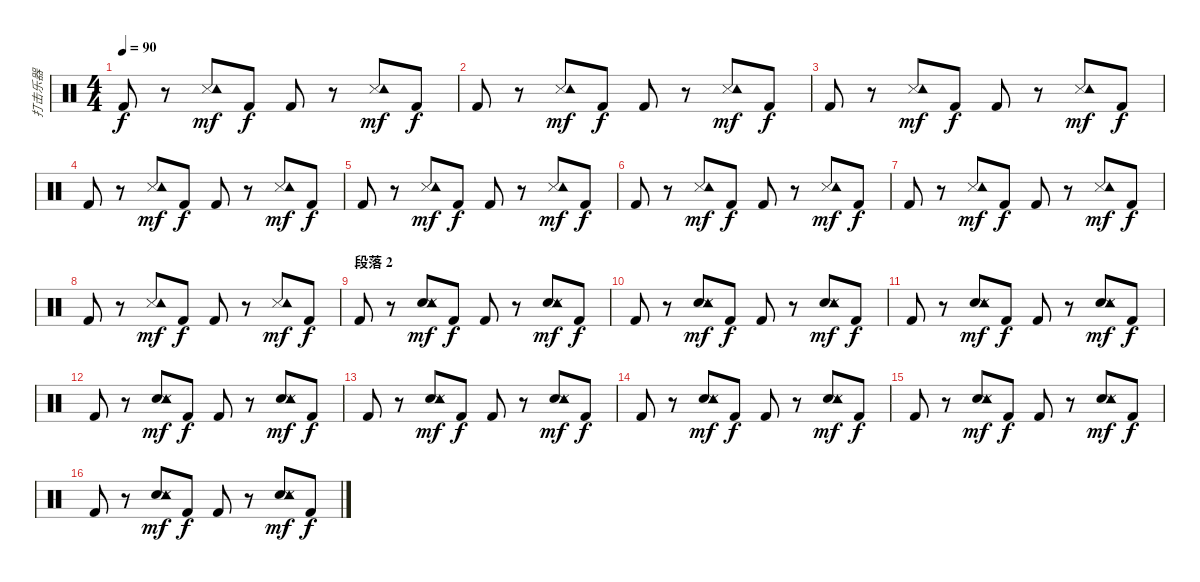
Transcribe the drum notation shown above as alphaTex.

\track ("打击乐器" "打击乐器") {instrument percussion}
\staff {score}
\articulation defaults
\ts (4 4)
\tempo 90
\clef neutral
\ks c "Kick (hit) 2".8{dy f}
r.8 ("Snare (side stick) 3" "Tambourine (hit)").8{dy mf} "Kick (hit) 2".8{dy f} "Kick (hit) 2".8 r.8 ("Snare (side stick) 3" "Tambourine (hit)").8{dy mf} "Kick (hit) 2".8{dy f} |
"Kick (hit) 2".8 r.8 ("Snare (side stick) 3" "Tambourine (hit)").8{dy mf} "Kick (hit) 2".8{dy f} "Kick (hit) 2".8 r.8 ("Snare (side stick) 3" "Tambourine (hit)").8{dy mf} "Kick (hit) 2".8{dy f} |
"Kick (hit) 2".8 r.8 ("Snare (side stick) 3" "Tambourine (hit)").8{dy mf} "Kick (hit) 2".8{dy f} "Kick (hit) 2".8 r.8 ("Snare (side stick) 3" "Tambourine (hit)").8{dy mf} "Kick (hit) 2".8{dy f} |
"Kick (hit) 2".8 r.8 ("Snare (side stick) 3" "Tambourine (hit)").8{dy mf} "Kick (hit) 2".8{dy f} "Kick (hit) 2".8 r.8 ("Snare (side stick) 3" "Tambourine (hit)").8{dy mf} "Kick (hit) 2".8{dy f} |
"Kick (hit) 2".8 r.8 ("Snare (side stick) 3" "Tambourine (hit)").8{dy mf} "Kick (hit) 2".8{dy f} "Kick (hit) 2".8 r.8 ("Snare (side stick) 3" "Tambourine (hit)").8{dy mf} "Kick (hit) 2".8{dy f} |
"Kick (hit) 2".8 r.8 ("Snare (side stick) 3" "Tambourine (hit)").8{dy mf} "Kick (hit) 2".8{dy f} "Kick (hit) 2".8 r.8 ("Snare (side stick) 3" "Tambourine (hit)").8{dy mf} "Kick (hit) 2".8{dy f} |
"Kick (hit) 2".8 r.8 ("Snare (side stick) 3" "Tambourine (hit)").8{dy mf} "Kick (hit) 2".8{dy f} "Kick (hit) 2".8 r.8 ("Snare (side stick) 3" "Tambourine (hit)").8{dy mf} "Kick (hit) 2".8{dy f} |
"Kick (hit) 2".8 r.8 ("Snare (side stick) 3" "Tambourine (hit)").8{dy mf} "Kick (hit) 2".8{dy f} "Kick (hit) 2".8 r.8 ("Snare (side stick) 3" "Tambourine (hit)").8{dy mf} "Kick (hit) 2".8{dy f} |
\section ("" "段落 2")
"Kick (hit) 2".8 r.8 ("Snare (hit) 2" "Snare (side stick) 3" "Tambourine (hit)").8{dy mf} "Kick (hit) 2".8{dy f} "Kick (hit) 2".8 r.8 ("Snare (hit) 2" "Snare (side stick) 3" "Tambourine (hit)").8{dy mf} "Kick (hit) 2".8{dy f} |
"Kick (hit) 2".8 r.8 ("Snare (hit) 2" "Snare (side stick) 3" "Tambourine (hit)").8{dy mf} "Kick (hit) 2".8{dy f} "Kick (hit) 2".8 r.8 ("Snare (hit) 2" "Snare (side stick) 3" "Tambourine (hit)").8{dy mf} "Kick (hit) 2".8{dy f} |
"Kick (hit) 2".8 r.8 ("Snare (hit) 2" "Snare (side stick) 3" "Tambourine (hit)").8{dy mf} "Kick (hit) 2".8{dy f} "Kick (hit) 2".8 r.8 ("Snare (hit) 2" "Snare (side stick) 3" "Tambourine (hit)").8{dy mf} "Kick (hit) 2".8{dy f} |
"Kick (hit) 2".8 r.8 ("Snare (hit) 2" "Snare (side stick) 3" "Tambourine (hit)").8{dy mf} "Kick (hit) 2".8{dy f} "Kick (hit) 2".8 r.8 ("Snare (hit) 2" "Snare (side stick) 3" "Tambourine (hit)").8{dy mf} "Kick (hit) 2".8{dy f} |
"Kick (hit) 2".8 r.8 ("Snare (hit) 2" "Snare (side stick) 3" "Tambourine (hit)").8{dy mf} "Kick (hit) 2".8{dy f} "Kick (hit) 2".8 r.8 ("Snare (hit) 2" "Snare (side stick) 3" "Tambourine (hit)").8{dy mf} "Kick (hit) 2".8{dy f} |
"Kick (hit) 2".8 r.8 ("Snare (hit) 2" "Snare (side stick) 3" "Tambourine (hit)").8{dy mf} "Kick (hit) 2".8{dy f} "Kick (hit) 2".8 r.8 ("Snare (hit) 2" "Snare (side stick) 3" "Tambourine (hit)").8{dy mf} "Kick (hit) 2".8{dy f} |
"Kick (hit) 2".8 r.8 ("Snare (hit) 2" "Snare (side stick) 3" "Tambourine (hit)").8{dy mf} "Kick (hit) 2".8{dy f} "Kick (hit) 2".8 r.8 ("Snare (hit) 2" "Snare (side stick) 3" "Tambourine (hit)").8{dy mf} "Kick (hit) 2".8{dy f} |
"Kick (hit) 2".8 r.8 ("Snare (hit) 2" "Snare (side stick) 3" "Tambourine (hit)").8{dy mf} "Kick (hit) 2".8{dy f} "Kick (hit) 2".8 r.8 ("Snare (hit) 2" "Snare (side stick) 3" "Tambourine (hit)").8{dy mf} "Kick (hit) 2".8{dy f}
